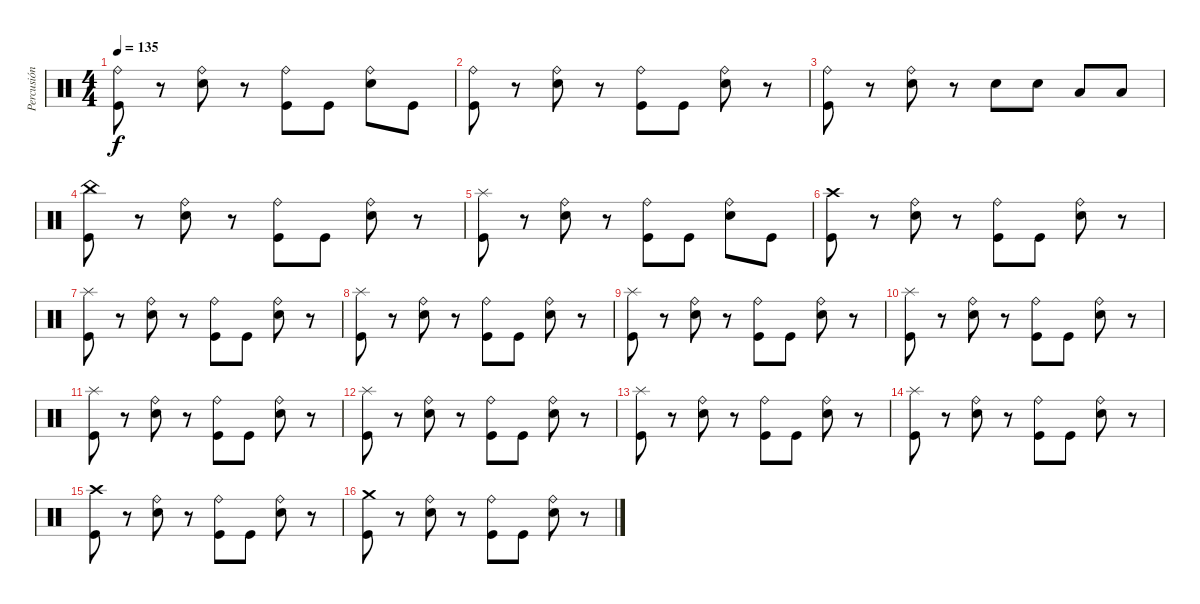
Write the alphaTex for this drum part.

\track ("Percusión" "Percusión") {instrument percussion}
\staff {score}
\articulation defaults
\ts (4 4)
\tempo 135
\clef neutral
\ks c
("Kick (hit)" "Ride (bell)").8{dy f} r.8 ("Electric Snare (hit)" "Ride (bell)").8 r.8 ("Kick (hit)" "Ride (bell)").8 "Kick (hit)".8 ("Electric Snare (hit)" "Ride (bell)").8 "Kick (hit)".8 |
("Kick (hit)" "Ride (bell)").8 r.8 ("Electric Snare (hit)" "Ride (bell)").8 r.8 ("Kick (hit)" "Ride (bell)").8 "Kick (hit)".8 ("Electric Snare (hit)" "Ride (bell)").8 r.8 |
("Kick (hit)" "Ride (bell)").8 r.8 ("Electric Snare (hit)" "Ride (bell)").8 r.8 "Electric Snare (hit)".8 "Electric Snare (hit)".8 "Low Tom (hit)".8 "Low Tom (hit)".8 |
("Kick (hit)" "China (hit)").8 r.8 ("Electric Snare (hit)" "Ride (bell)").8 r.8 ("Kick (hit)" "Ride (bell)").8 "Kick (hit)".8 ("Electric Snare (hit)" "Ride (bell)").8 r.8 |
("Kick (hit)" "Splash (hit)").8 r.8 ("Electric Snare (hit)" "Ride (bell)").8 r.8 ("Kick (hit)" "Ride (bell)").8 "Kick (hit)".8 ("Electric Snare (hit)" "Ride (bell)").8 "Kick (hit)".8 |
("Kick (hit)" "Crash high (hit)").8 r.8 ("Electric Snare (hit)" "Ride (bell)").8 r.8 ("Kick (hit)" "Ride (bell)").8 "Kick (hit)".8 ("Electric Snare (hit)" "Ride (bell)").8 r.8 |
("Kick (hit)" "Splash (hit)").8 r.8 ("Electric Snare (hit)" "Ride (bell)").8 r.8 ("Kick (hit)" "Ride (bell)").8 "Kick (hit)".8 ("Electric Snare (hit)" "Ride (bell)").8 r.8 |
("Kick (hit)" "Splash (hit)").8 r.8 ("Electric Snare (hit)" "Ride (bell)").8 r.8 ("Kick (hit)" "Ride (bell)").8 "Kick (hit)".8 ("Electric Snare (hit)" "Ride (bell)").8 r.8 |
("Kick (hit)" "Splash (hit)").8 r.8 ("Electric Snare (hit)" "Ride (bell)").8 r.8 ("Kick (hit)" "Ride (bell)").8 "Kick (hit)".8 ("Electric Snare (hit)" "Ride (bell)").8 r.8 |
("Kick (hit)" "Splash (hit)").8 r.8 ("Electric Snare (hit)" "Ride (bell)").8 r.8 ("Kick (hit)" "Ride (bell)").8 "Kick (hit)".8 ("Electric Snare (hit)" "Ride (bell)").8 r.8 |
("Kick (hit)" "Splash (hit)").8 r.8 ("Electric Snare (hit)" "Ride (bell)").8 r.8 ("Kick (hit)" "Ride (bell)").8 "Kick (hit)".8 ("Electric Snare (hit)" "Ride (bell)").8 r.8 |
("Kick (hit)" "Splash (hit)").8 r.8 ("Electric Snare (hit)" "Ride (bell)").8 r.8 ("Kick (hit)" "Ride (bell)").8 "Kick (hit)".8 ("Electric Snare (hit)" "Ride (bell)").8 r.8 |
("Kick (hit)" "Splash (hit)").8 r.8 ("Electric Snare (hit)" "Ride (bell)").8 r.8 ("Kick (hit)" "Ride (bell)").8 "Kick (hit)".8 ("Electric Snare (hit)" "Ride (bell)").8 r.8 |
("Kick (hit)" "Splash (hit)").8 r.8 ("Electric Snare (hit)" "Ride (bell)").8 r.8 ("Kick (hit)" "Ride (bell)").8 "Kick (hit)".8 ("Electric Snare (hit)" "Ride (bell)").8 r.8 |
("Kick (hit)" "Crash high (hit)").8 r.8 ("Electric Snare (hit)" "Ride (bell)").8 r.8 ("Kick (hit)" "Ride (bell)").8 "Kick (hit)".8 ("Electric Snare (hit)" "Ride (bell)").8 r.8 |
("Kick (hit)" "Crash medium (hit)").8 r.8 ("Electric Snare (hit)" "Ride (bell)").8 r.8 ("Kick (hit)" "Ride (bell)").8 "Kick (hit)".8 ("Electric Snare (hit)" "Ride (bell)").8 r.8
